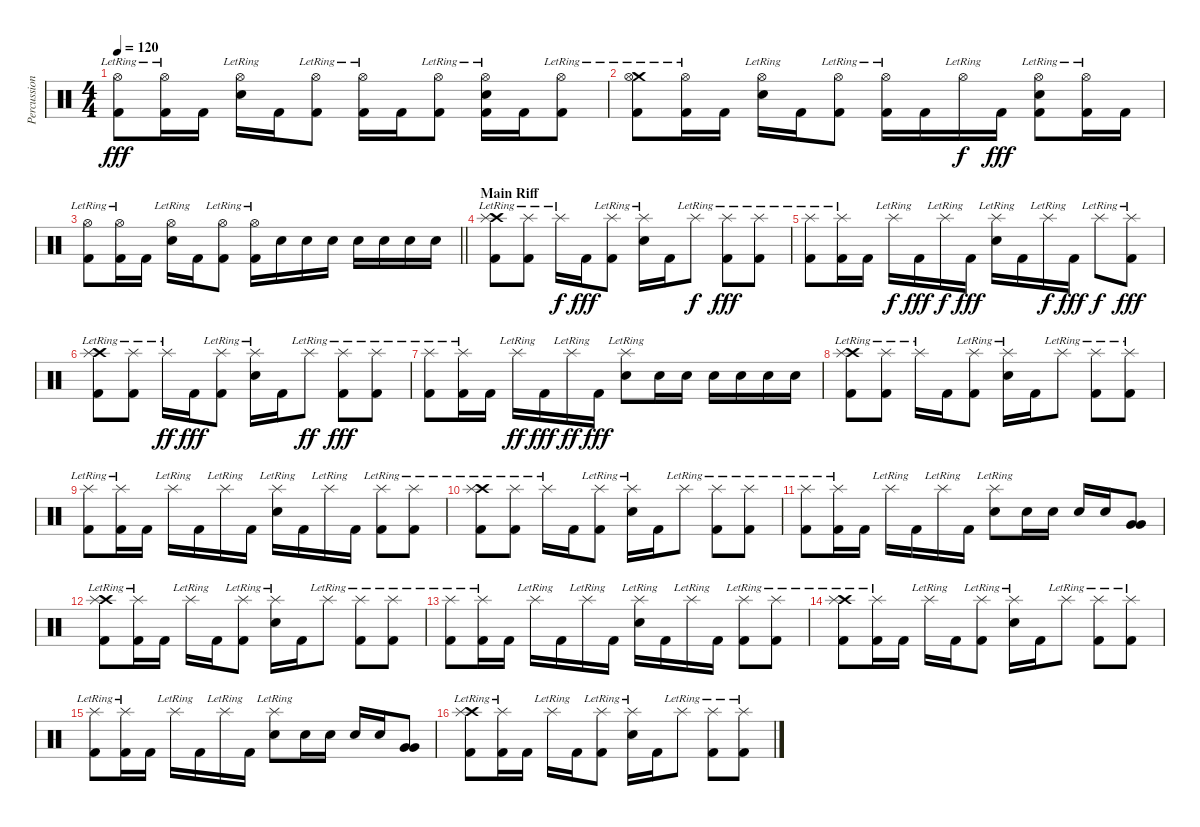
\track ("Percussions" "Percussion") {instrument percussion}
\staff {score}
\articulation defaults
\ts (4 4)
\tempo 120
\clef neutral
\ks c
("Hi-Hat (open)"{lr} "Kick (hit) 2").8{dy fff} ("Hi-Hat (open)"{lr} "Kick (hit) 2").16 "Kick (hit) 2".16 ("Hi-Hat (open)"{lr} "Electric Snare (hit)").16 "Kick (hit) 2".16 ("Hi-Hat (open)"{lr} "Kick (hit) 2").8 ("Hi-Hat (open)"{lr} "Kick (hit) 2").16 "Kick (hit) 2".16 ("Hi-Hat (open)"{lr} "Kick (hit) 2").8 ("Hi-Hat (open)"{lr} "Electric Snare (hit)" "Kick (hit) 2").16 "Kick (hit) 2".16 ("Hi-Hat (open)"{lr} "Kick (hit) 2").8 |
("Crash medium (hit)"{lr} "Hi-Hat (open)"{lr} "Kick (hit) 2").8 ("Hi-Hat (open)"{lr} "Kick (hit) 2").16 "Kick (hit) 2".16 ("Hi-Hat (open)"{lr} "Electric Snare (hit)").16 "Kick (hit) 2".16 ("Hi-Hat (open)"{lr} "Kick (hit) 2").8 ("Hi-Hat (open)"{lr} "Kick (hit) 2").16 "Kick (hit) 2".16 "Hi-Hat (open)"{lr}.16{dy f} "Kick (hit) 2".16{dy fff} ("Hi-Hat (open)"{lr} "Electric Snare (hit)" "Kick (hit) 2").8 ("Hi-Hat (open)"{lr} "Kick (hit) 2").16 "Kick (hit) 2".16 |
\barLineRight lightlight
("Hi-Hat (open)"{lr} "Kick (hit) 2").8 ("Hi-Hat (open)"{lr} "Kick (hit) 2").16 "Kick (hit) 2".16 ("Hi-Hat (open)"{lr} "Electric Snare (hit)").16 "Kick (hit) 2".16 ("Hi-Hat (open)"{lr} "Kick (hit) 2").8 ("Hi-Hat (open)"{lr} "Kick (hit) 2").16 "Electric Snare (hit)".16 "Electric Snare (hit)".16 "Electric Snare (hit)".16 "Electric Snare (hit)".16 "Electric Snare (hit)".16 "Electric Snare (hit)".16 "Electric Snare (hit)".16 |
\section ("" "Main Riff")
("Crash high (hit)"{lr} "Splash (hit)"{lr} "Kick (hit) 2").8 ("Splash (hit)"{lr} "Kick (hit) 2").8 "Splash (hit)"{lr}.16{dy f} "Kick (hit) 2".16{dy fff} ("Splash (hit)"{lr} "Kick (hit) 2").8 ("Splash (hit)"{lr} "Electric Snare (hit)").16 "Kick (hit) 2".16 "Splash (hit)"{lr}.8{dy f} ("Splash (hit)"{lr} "Kick (hit) 2").8{dy fff} ("Splash (hit)"{lr} "Kick (hit) 2").8 |
("Splash (hit)"{lr} "Kick (hit) 2").8 ("Splash (hit)"{lr} "Kick (hit) 2").16 "Kick (hit) 2".16 "Splash (hit)"{lr}.16{dy f} "Kick (hit) 2".16{dy fff} "Splash (hit)"{lr}.16{dy f} "Kick (hit) 2".16{dy fff} ("Splash (hit)"{lr} "Electric Snare (hit)").16 "Kick (hit) 2".16 "Splash (hit)"{lr}.16{dy f} "Kick (hit) 2".16{dy fff} "Splash (hit)"{lr}.8{dy f} ("Splash (hit)"{lr} "Kick (hit) 2").8{dy fff} |
("Crash high (hit)"{lr} "Splash (hit)"{lr} "Kick (hit) 2").8 ("Splash (hit)"{lr} "Kick (hit) 2").8 "Splash (hit)"{lr}.16{dy ff} "Kick (hit) 2".16{dy fff} ("Splash (hit)"{lr} "Kick (hit) 2").8 ("Splash (hit)"{lr} "Electric Snare (hit)").16 "Kick (hit) 2".16 "Splash (hit)"{lr}.8{dy ff} ("Splash (hit)"{lr} "Kick (hit) 2").8{dy fff} ("Splash (hit)"{lr} "Kick (hit) 2").8 |
("Splash (hit)"{lr} "Kick (hit) 2").8 ("Splash (hit)"{lr} "Kick (hit) 2").16 "Kick (hit) 2".16 "Splash (hit)"{lr}.16{dy ff} "Kick (hit) 2".16{dy fff} "Splash (hit)"{lr}.16{dy ff} "Kick (hit) 2".16{dy fff} ("Splash (hit)"{lr} "Electric Snare (hit)").8 "Electric Snare (hit)".16 "Electric Snare (hit)".16 "Electric Snare (hit)".16 "Electric Snare (hit)".16 "Electric Snare (hit)".16 "Electric Snare (hit)".16 |
("Crash high (hit)"{lr} "Splash (hit)"{lr} "Kick (hit) 2").8 ("Splash (hit)"{lr} "Kick (hit) 2").8 "Splash (hit)"{lr}.16 "Kick (hit) 2".16 ("Splash (hit)"{lr} "Kick (hit) 2").8 ("Splash (hit)"{lr} "Electric Snare (hit)").16 "Kick (hit) 2".16 "Splash (hit)"{lr}.8 ("Splash (hit)"{lr} "Kick (hit) 2").8 ("Splash (hit)"{lr} "Kick (hit) 2").8 |
("Splash (hit)"{lr} "Kick (hit) 2").8 ("Splash (hit)"{lr} "Kick (hit) 2").16 "Kick (hit) 2".16 "Splash (hit)"{lr}.16 "Kick (hit) 2".16 "Splash (hit)"{lr}.16 "Kick (hit) 2".16 ("Splash (hit)"{lr} "Electric Snare (hit)").16 "Kick (hit) 2".16 "Splash (hit)"{lr}.16 "Kick (hit) 2".16 ("Splash (hit)"{lr} "Kick (hit) 2").8 ("Splash (hit)"{lr} "Kick (hit) 2").8 |
("Crash high (hit)"{lr} "Splash (hit)"{lr} "Kick (hit) 2").8 ("Splash (hit)"{lr} "Kick (hit) 2").8 "Splash (hit)"{lr}.16 "Kick (hit) 2".16 ("Splash (hit)"{lr} "Kick (hit) 2").8 ("Splash (hit)"{lr} "Electric Snare (hit)").16 "Kick (hit) 2".16 "Splash (hit)"{lr}.8 ("Splash (hit)"{lr} "Kick (hit) 2").8 ("Splash (hit)"{lr} "Kick (hit) 2").8 |
("Splash (hit)"{lr} "Kick (hit) 2").8 ("Splash (hit)"{lr} "Kick (hit) 2").16 "Kick (hit) 2".16 "Splash (hit)"{lr}.16 "Kick (hit) 2".16 "Splash (hit)"{lr}.16 "Kick (hit) 2".16 ("Splash (hit)"{lr} "Electric Snare (hit)").8 "Electric Snare (hit)".16 "Electric Snare (hit)".16 "Electric Snare (hit)".16 "Electric Snare (hit)".16 ("Very Low Tom (hit)" "Very Low Tom (hit)").8 |
("Crash high (hit)"{lr} "Splash (hit)"{lr} "Kick (hit) 2").8 ("Splash (hit)"{lr} "Kick (hit) 2").16 "Kick (hit) 2".16 "Splash (hit)"{lr}.16 "Kick (hit) 2".16 ("Splash (hit)"{lr} "Kick (hit) 2").8 ("Splash (hit)"{lr} "Electric Snare (hit)").16 "Kick (hit) 2".16 "Splash (hit)"{lr}.8 ("Splash (hit)"{lr} "Kick (hit) 2").8 ("Splash (hit)"{lr} "Kick (hit) 2").8 |
("Splash (hit)"{lr} "Kick (hit) 2").8 ("Splash (hit)"{lr} "Kick (hit) 2").16 "Kick (hit) 2".16 "Splash (hit)"{lr}.16 "Kick (hit) 2".16 "Splash (hit)"{lr}.16 "Kick (hit) 2".16 ("Splash (hit)"{lr} "Electric Snare (hit)").16 "Kick (hit) 2".16 "Splash (hit)"{lr}.16 "Kick (hit) 2".16 ("Splash (hit)"{lr} "Kick (hit) 2").8 ("Splash (hit)"{lr} "Kick (hit) 2").8 |
("Crash high (hit)"{lr} "Splash (hit)"{lr} "Kick (hit) 2").8 ("Splash (hit)"{lr} "Kick (hit) 2").16 "Kick (hit) 2".16 "Splash (hit)"{lr}.16 "Kick (hit) 2".16 ("Splash (hit)"{lr} "Kick (hit) 2").8 ("Splash (hit)"{lr} "Electric Snare (hit)").16 "Kick (hit) 2".16 "Splash (hit)"{lr}.8 ("Splash (hit)"{lr} "Kick (hit) 2").8 ("Splash (hit)"{lr} "Kick (hit) 2").8 |
("Splash (hit)"{lr} "Kick (hit) 2").8 ("Splash (hit)"{lr} "Kick (hit) 2").16 "Kick (hit) 2".16 "Splash (hit)"{lr}.16 "Kick (hit) 2".16 "Splash (hit)"{lr}.16 "Kick (hit) 2".16 ("Splash (hit)"{lr} "Electric Snare (hit)").8 "Electric Snare (hit)".16 "Electric Snare (hit)".16 "Electric Snare (hit)".16 "Electric Snare (hit)".16 ("Very Low Tom (hit)" "Very Low Tom (hit)").8 |
("Crash high (hit)"{lr} "Splash (hit)"{lr} "Kick (hit) 2").8 ("Splash (hit)"{lr} "Kick (hit) 2").16 "Kick (hit) 2".16 "Splash (hit)"{lr}.16 "Kick (hit) 2".16 ("Splash (hit)"{lr} "Kick (hit) 2").8 ("Splash (hit)"{lr} "Electric Snare (hit)").16 "Kick (hit) 2".16 "Splash (hit)"{lr}.8 ("Splash (hit)"{lr} "Kick (hit) 2").8 ("Splash (hit)"{lr} "Kick (hit) 2").8
